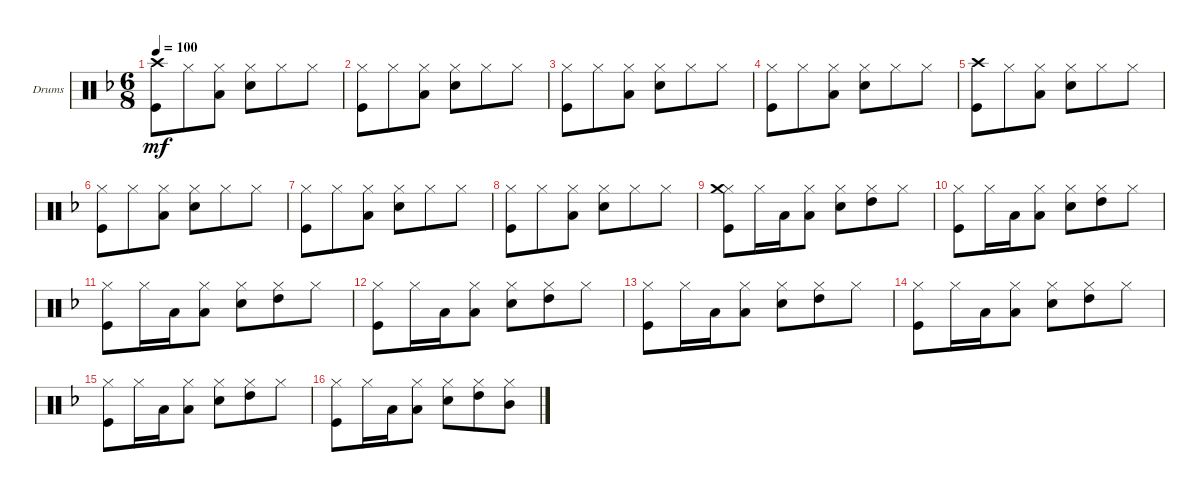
\defaultSystemsLayout 4
\bracketExtendMode groupsimilarinstruments
\firstSystemTrackNameOrientation horizontal
\otherSystemsTrackNameOrientation horizontal
\track ("Drumkit" "Drums") {instrument percussion}
\staff {score}
\articulation defaults
\ts (6 8)
\tempo 100
\clef neutral
\ks dminor
("Kick (hit)" "Crash high (hit)").8{dy mf} "Hi-Hat (closed)".8 ("Hi-Hat (closed)" "Low Tom (hit)").8 ("Hi-Hat (closed)" "Snare (hit) 2").8 "Hi-Hat (closed)".8 "Hi-Hat (closed)".8 |
("Kick (hit)" "Hi-Hat (closed)").8 "Hi-Hat (closed)".8 ("Hi-Hat (closed)" "Low Tom (hit)").8 ("Hi-Hat (closed)" "Snare (hit) 2").8 "Hi-Hat (closed)".8 "Hi-Hat (closed)".8 |
("Kick (hit)" "Hi-Hat (closed)").8 "Hi-Hat (closed)".8 ("Hi-Hat (closed)" "Low Tom (hit)").8 ("Hi-Hat (closed)" "Snare (hit) 2").8 "Hi-Hat (closed)".8 "Hi-Hat (closed)".8 |
("Kick (hit)" "Hi-Hat (closed)").8 "Hi-Hat (closed)".8 ("Hi-Hat (closed)" "Low Tom (hit)").8 ("Hi-Hat (closed)" "Snare (hit) 2").8 "Hi-Hat (closed)".8 "Hi-Hat (closed)".8 |
("Kick (hit)" "Crash high (hit)").8 "Hi-Hat (closed)".8 ("Hi-Hat (closed)" "Low Tom (hit)").8 ("Hi-Hat (closed)" "Snare (hit) 2").8 "Hi-Hat (closed)".8 "Hi-Hat (closed)".8 |
("Kick (hit)" "Hi-Hat (closed)").8 "Hi-Hat (closed)".8 ("Hi-Hat (closed)" "Low Tom (hit)").8 ("Hi-Hat (closed)" "Snare (hit) 2").8 "Hi-Hat (closed)".8 "Hi-Hat (closed)".8 |
("Kick (hit)" "Hi-Hat (closed)").8 "Hi-Hat (closed)".8 ("Hi-Hat (closed)" "Low Tom (hit)").8 ("Hi-Hat (closed)" "Snare (hit) 2").8 "Hi-Hat (closed)".8 "Hi-Hat (closed)".8 |
("Kick (hit)" "Hi-Hat (closed)").8 "Hi-Hat (closed)".8 ("Hi-Hat (closed)" "Low Tom (hit)").8 ("Hi-Hat (closed)" "Snare (hit) 2").8 "Hi-Hat (closed)".8 "Hi-Hat (closed)".8 |
("Kick (hit)" "Hi-Hat (closed)" "Crash medium (hit)").8 "Hi-Hat (closed)".16 "Low Tom (hit)".16 ("Hi-Hat (closed)" "Low Tom (hit)").8 ("Hi-Hat (closed)" "Snare (hit) 2").8 ("Hi-Hat (closed)" "High Tom (hit)").8 "Hi-Hat (closed)".8 |
("Kick (hit)" "Hi-Hat (closed)").8 "Hi-Hat (closed)".16 "Low Tom (hit)".16 ("Hi-Hat (closed)" "Low Tom (hit)").8 ("Hi-Hat (closed)" "Snare (hit) 2").8 ("Hi-Hat (closed)" "High Tom (hit)").8 "Hi-Hat (closed)".8 |
("Kick (hit)" "Hi-Hat (closed)").8 "Hi-Hat (closed)".16 "Low Tom (hit)".16 ("Hi-Hat (closed)" "Low Tom (hit)").8 ("Hi-Hat (closed)" "Snare (hit) 2").8 ("Hi-Hat (closed)" "High Tom (hit)").8 "Hi-Hat (closed)".8 |
("Kick (hit)" "Hi-Hat (closed)").8 "Hi-Hat (closed)".16 "Low Tom (hit)".16 ("Hi-Hat (closed)" "Low Tom (hit)").8 ("Hi-Hat (closed)" "Snare (hit) 2").8 ("Hi-Hat (closed)" "High Tom (hit)").8 "Hi-Hat (closed)".8 |
("Kick (hit)" "Hi-Hat (closed)").8 "Hi-Hat (closed)".16 "Low Tom (hit)".16 ("Hi-Hat (closed)" "Low Tom (hit)").8 ("Hi-Hat (closed)" "Snare (hit) 2").8 ("Hi-Hat (closed)" "High Tom (hit)").8 "Hi-Hat (closed)".8 |
("Kick (hit)" "Hi-Hat (closed)").8 "Hi-Hat (closed)".16 "Low Tom (hit)".16 ("Hi-Hat (closed)" "Low Tom (hit)").8 ("Hi-Hat (closed)" "Snare (hit) 2").8 ("Hi-Hat (closed)" "High Tom (hit)").8 "Hi-Hat (closed)".8 |
("Kick (hit)" "Hi-Hat (closed)").8 "Hi-Hat (closed)".16 "Low Tom (hit)".16 ("Hi-Hat (closed)" "Low Tom (hit)").8 ("Hi-Hat (closed)" "Snare (hit) 2").8 ("Hi-Hat (closed)" "High Tom (hit)").8 "Hi-Hat (closed)".8 |
("Kick (hit)" "Hi-Hat (closed)").8 "Hi-Hat (closed)".16 "Low Tom (hit)".16 ("Hi-Hat (closed)" "Low Tom (hit)").8 ("Hi-Hat (closed)" "Snare (hit) 2").8 ("Hi-Hat (closed)" "High Tom (hit)").8 ("Hi-Hat (closed)" "Mid Tom (hit)").8
